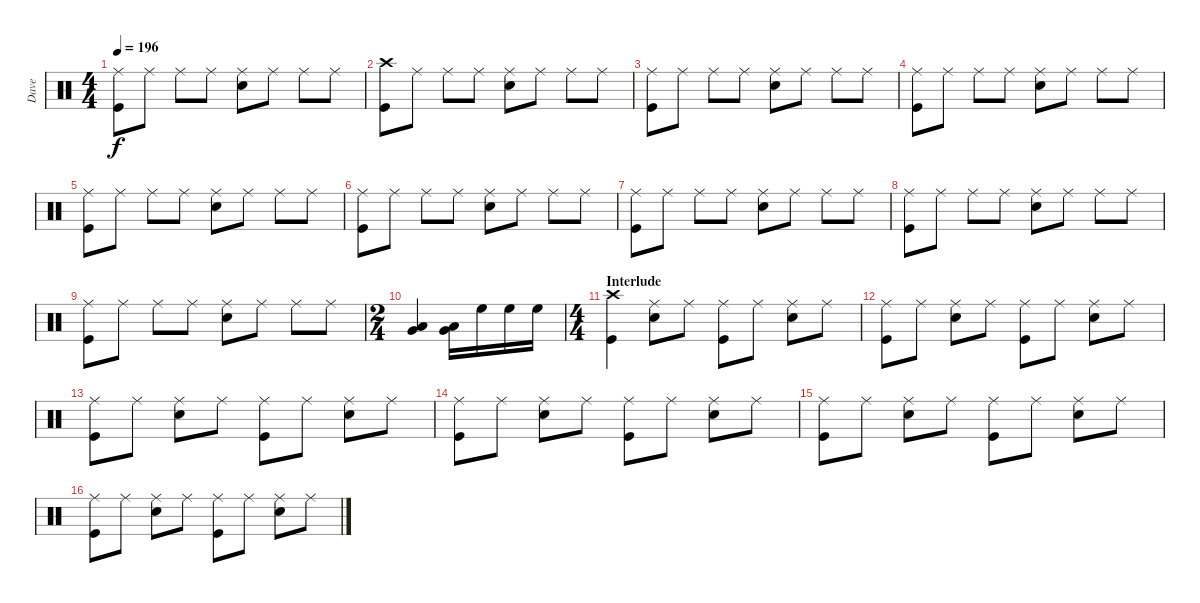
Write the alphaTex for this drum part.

\track ("Dave" "Dave") {instrument percussion}
\staff {score}
\articulation defaults
\ts (4 4)
\tempo 196
\clef neutral
\ks c
("Ride (middle)" "Kick (hit)").8{dy f} "Ride (middle)".8 "Ride (middle)".8 "Ride (middle)".8 ("Ride (middle)" "Snare (hit) 2").8 "Ride (middle)".8 "Ride (middle)".8 "Ride (middle)".8 |
("Crash high (hit)" "Kick (hit)").8 "Ride (middle)".8 "Ride (middle)".8 "Ride (middle)".8 ("Ride (middle)" "Snare (hit) 2").8 "Ride (middle)".8 "Ride (middle)".8 "Ride (middle)".8 |
("Ride (middle)" "Kick (hit)").8 "Ride (middle)".8 "Ride (middle)".8 "Ride (middle)".8 ("Ride (middle)" "Snare (hit) 2").8 "Ride (middle)".8 "Ride (middle)".8 "Ride (middle)".8 |
("Ride (middle)" "Kick (hit)").8 "Ride (middle)".8 "Ride (middle)".8 "Ride (middle)".8 ("Ride (middle)" "Snare (hit) 2").8 "Ride (middle)".8 "Ride (middle)".8 "Ride (middle)".8 |
("Ride (middle)" "Kick (hit)").8 "Ride (middle)".8 "Ride (middle)".8 "Ride (middle)".8 ("Ride (middle)" "Snare (hit) 2").8 "Ride (middle)".8 "Ride (middle)".8 "Ride (middle)".8 |
("Ride (middle)" "Kick (hit)").8 "Ride (middle)".8 "Ride (middle)".8 "Ride (middle)".8 ("Ride (middle)" "Snare (hit) 2").8 "Ride (middle)".8 "Ride (middle)".8 "Ride (middle)".8 |
("Ride (middle)" "Kick (hit)").8 "Ride (middle)".8 "Ride (middle)".8 "Ride (middle)".8 ("Ride (middle)" "Snare (hit) 2").8 "Ride (middle)".8 "Ride (middle)".8 "Ride (middle)".8 |
("Ride (middle)" "Kick (hit)").8 "Ride (middle)".8 "Ride (middle)".8 "Ride (middle)".8 ("Ride (middle)" "Snare (hit) 2").8 "Ride (middle)".8 "Ride (middle)".8 "Ride (middle)".8 |
("Ride (middle)" "Kick (hit)").8 "Ride (middle)".8 "Ride (middle)".8 "Ride (middle)".8 ("Ride (middle)" "Snare (hit) 2").8 "Ride (middle)".8 "Ride (middle)".8 "Ride (middle)".8 |
\ts (2 4)
("Very Low Tom (hit)" "Low Floor Tom (hit)").4 ("Very Low Tom (hit)" "Low Floor Tom (hit)").16 "High Floor Tom (hit)".16 "High Floor Tom (hit)".16 "High Floor Tom (hit)".16 |
\ts (4 4)
\section ("" "Interlude")
("Crash high (hit)" "Kick (hit)").4 ("Ride (middle)" "Snare (hit) 2").8 "Ride (middle)".8 ("Ride (middle)" "Kick (hit)").8 "Ride (middle)".8 ("Ride (middle)" "Snare (hit) 2").8 "Ride (middle)".8 |
("Ride (middle)" "Kick (hit)").8 "Ride (middle)".8 ("Ride (middle)" "Snare (hit) 2").8 "Ride (middle)".8 ("Ride (middle)" "Kick (hit)").8 "Ride (middle)".8 ("Ride (middle)" "Snare (hit) 2").8 "Ride (middle)".8 |
("Ride (middle)" "Kick (hit)").8 "Ride (middle)".8 ("Ride (middle)" "Snare (hit) 2").8 "Ride (middle)".8 ("Ride (middle)" "Kick (hit)").8 "Ride (middle)".8 ("Ride (middle)" "Snare (hit) 2").8 "Ride (middle)".8 |
("Ride (middle)" "Kick (hit)").8 "Ride (middle)".8 ("Ride (middle)" "Snare (hit) 2").8 "Ride (middle)".8 ("Ride (middle)" "Kick (hit)").8 "Ride (middle)".8 ("Ride (middle)" "Snare (hit) 2").8 "Ride (middle)".8 |
("Ride (middle)" "Kick (hit)").8 "Ride (middle)".8 ("Ride (middle)" "Snare (hit) 2").8 "Ride (middle)".8 ("Ride (middle)" "Kick (hit)").8 "Ride (middle)".8 ("Ride (middle)" "Snare (hit) 2").8 "Ride (middle)".8 |
("Ride (middle)" "Kick (hit)").8 "Ride (middle)".8 ("Ride (middle)" "Snare (hit) 2").8 "Ride (middle)".8 ("Ride (middle)" "Kick (hit)").8 "Ride (middle)".8 ("Ride (middle)" "Snare (hit) 2").8 "Ride (middle)".8
